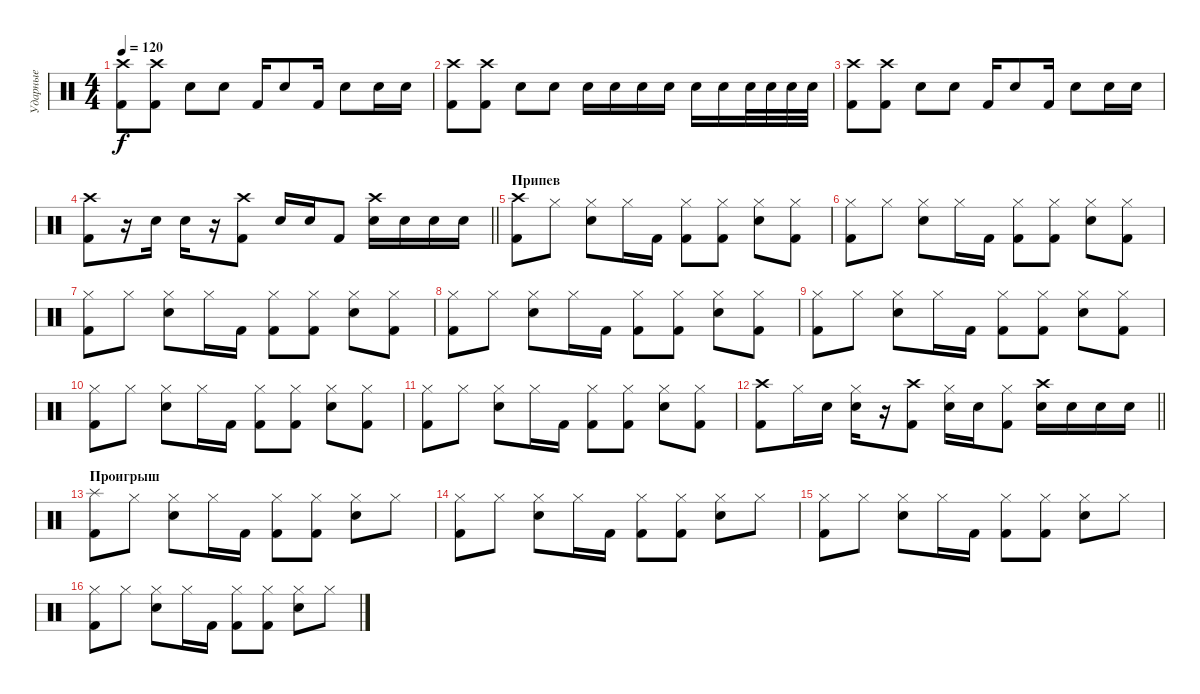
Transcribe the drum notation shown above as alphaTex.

\track ("Ударные" "Ударные") {instrument percussion}
\staff {score}
\articulation defaults
\ts (4 4)
\tempo 120
\clef neutral
\ks c
("Kick (hit) 2" "Crash high (hit)").8{dy f} ("Kick (hit) 2" "Crash high (hit)").8 "Snare (hit) 2".8 "Electric Snare (hit)".8 "Kick (hit) 2".16 "Electric Snare (hit)".8 "Kick (hit) 2".16 "Electric Snare (hit)".8 "Electric Snare (hit)".16 "Electric Snare (hit)".16 |
("Kick (hit) 2" "Crash high (hit)").8 ("Kick (hit) 2" "Crash high (hit)").8 "Snare (hit) 2".8 "Electric Snare (hit)".8 "Electric Snare (hit)".16 "Electric Snare (hit)".16 "Electric Snare (hit)".16 "Electric Snare (hit)".16 "Electric Snare (hit)".16 "Electric Snare (hit)".16 "Electric Snare (hit)".32 "Electric Snare (hit)".32 "Electric Snare (hit)".32 "Electric Snare (hit)".32 |
("Kick (hit) 2" "Crash high (hit)").8 ("Kick (hit) 2" "Crash high (hit)").8 "Snare (hit) 2".8 "Electric Snare (hit)".8 "Kick (hit) 2".16 "Electric Snare (hit)".8 "Kick (hit) 2".16 "Electric Snare (hit)".8 "Electric Snare (hit)".16 "Electric Snare (hit)".16 |
\barLineRight lightlight
("Crash high (hit)" "Kick (hit) 2").8 r.16 "Snare (hit) 2".16 "Snare (hit) 2".16 r.16 ("Crash high (hit)" "Kick (hit) 2").8 "Snare (hit) 2".16 "Snare (hit) 2".16 "Kick (hit) 2".8 ("Crash high (hit)" "Snare (hit) 2").16 "Snare (hit) 2".16 "Snare (hit) 2".16 "Snare (hit) 2".16 |
\section ("" "Припев")
("Crash high (hit)" "Kick (hit) 2").8 "Hi-Hat (closed)".8 ("Hi-Hat (closed)" "Snare (hit) 2").8 "Hi-Hat (closed)".16 "Kick (hit) 2".16 ("Hi-Hat (closed)" "Kick (hit) 2").8 ("Hi-Hat (closed)" "Kick (hit) 2").8 ("Hi-Hat (closed)" "Snare (hit) 2").8 ("Hi-Hat (closed)" "Kick (hit) 2").8 |
("Hi-Hat (closed)" "Kick (hit) 2").8 "Hi-Hat (closed)".8 ("Hi-Hat (closed)" "Snare (hit) 2").8 "Hi-Hat (closed)".16 "Kick (hit) 2".16 ("Hi-Hat (closed)" "Kick (hit) 2").8 ("Hi-Hat (closed)" "Kick (hit) 2").8 ("Hi-Hat (closed)" "Snare (hit) 2").8 ("Hi-Hat (closed)" "Kick (hit) 2").8 |
("Hi-Hat (closed)" "Kick (hit) 2").8 "Hi-Hat (closed)".8 ("Hi-Hat (closed)" "Snare (hit) 2").8 "Hi-Hat (closed)".16 "Kick (hit) 2".16 ("Hi-Hat (closed)" "Kick (hit) 2").8 ("Hi-Hat (closed)" "Kick (hit) 2").8 ("Hi-Hat (closed)" "Snare (hit) 2").8 ("Hi-Hat (closed)" "Kick (hit) 2").8 |
("Hi-Hat (closed)" "Kick (hit) 2").8 "Hi-Hat (closed)".8 ("Hi-Hat (closed)" "Snare (hit) 2").8 "Hi-Hat (closed)".16 "Kick (hit) 2".16 ("Hi-Hat (closed)" "Kick (hit) 2").8 ("Hi-Hat (closed)" "Kick (hit) 2").8 ("Hi-Hat (closed)" "Snare (hit) 2").8 ("Hi-Hat (closed)" "Kick (hit) 2").8 |
("Hi-Hat (closed)" "Kick (hit) 2").8 "Hi-Hat (closed)".8 ("Hi-Hat (closed)" "Snare (hit) 2").8 "Hi-Hat (closed)".16 "Kick (hit) 2".16 ("Hi-Hat (closed)" "Kick (hit) 2").8 ("Hi-Hat (closed)" "Kick (hit) 2").8 ("Hi-Hat (closed)" "Snare (hit) 2").8 ("Hi-Hat (closed)" "Kick (hit) 2").8 |
("Hi-Hat (closed)" "Kick (hit) 2").8 "Hi-Hat (closed)".8 ("Hi-Hat (closed)" "Snare (hit) 2").8 "Hi-Hat (closed)".16 "Kick (hit) 2".16 ("Hi-Hat (closed)" "Kick (hit) 2").8 ("Hi-Hat (closed)" "Kick (hit) 2").8 ("Hi-Hat (closed)" "Snare (hit) 2").8 ("Hi-Hat (closed)" "Kick (hit) 2").8 |
("Hi-Hat (closed)" "Kick (hit) 2").8 "Hi-Hat (closed)".8 ("Hi-Hat (closed)" "Snare (hit) 2").8 "Hi-Hat (closed)".16 "Kick (hit) 2".16 ("Hi-Hat (closed)" "Kick (hit) 2").8 ("Hi-Hat (closed)" "Kick (hit) 2").8 ("Hi-Hat (closed)" "Snare (hit) 2").8 ("Hi-Hat (closed)" "Kick (hit) 2").8 |
\barLineRight lightlight
("Crash high (hit)" "Kick (hit) 2").8 "Hi-Hat (closed)".16 "Snare (hit) 2".16 ("Hi-Hat (closed)" "Snare (hit) 2").16 r.16 ("Crash high (hit)" "Kick (hit) 2").8 ("Hi-Hat (closed)" "Snare (hit) 2").16 "Snare (hit) 2".16 ("Hi-Hat (closed)" "Kick (hit) 2").8 ("Crash high (hit)" "Snare (hit) 2").16 "Snare (hit) 2".16 "Snare (hit) 2".16 "Snare (hit) 2".16 |
\section ("" "Проигрыш")
("Splash (hit)" "Kick (hit) 2").8 "Hi-Hat (closed)".8 ("Hi-Hat (closed)" "Snare (hit) 2").8 "Hi-Hat (closed)".16 "Kick (hit) 2".16 ("Hi-Hat (closed)" "Kick (hit) 2").8 ("Hi-Hat (closed)" "Kick (hit) 2").8 ("Hi-Hat (closed)" "Snare (hit) 2").8 "Hi-Hat (closed)".8 |
("Hi-Hat (closed)" "Kick (hit) 2").8 "Hi-Hat (closed)".8 ("Hi-Hat (closed)" "Snare (hit) 2").8 "Hi-Hat (closed)".16 "Kick (hit) 2".16 ("Hi-Hat (closed)" "Kick (hit) 2").8 ("Hi-Hat (closed)" "Kick (hit) 2").8 ("Hi-Hat (closed)" "Snare (hit) 2").8 "Hi-Hat (closed)".8 |
("Hi-Hat (closed)" "Kick (hit) 2").8 "Hi-Hat (closed)".8 ("Hi-Hat (closed)" "Snare (hit) 2").8 "Hi-Hat (closed)".16 "Kick (hit) 2".16 ("Hi-Hat (closed)" "Kick (hit) 2").8 ("Hi-Hat (closed)" "Kick (hit) 2").8 ("Hi-Hat (closed)" "Snare (hit) 2").8 "Hi-Hat (closed)".8 |
("Hi-Hat (closed)" "Kick (hit) 2").8 "Hi-Hat (closed)".8 ("Hi-Hat (closed)" "Snare (hit) 2").8 "Hi-Hat (closed)".16 "Kick (hit) 2".16 ("Hi-Hat (closed)" "Kick (hit) 2").8 ("Hi-Hat (closed)" "Kick (hit) 2").8 ("Hi-Hat (closed)" "Snare (hit) 2").8 "Hi-Hat (closed)".8
